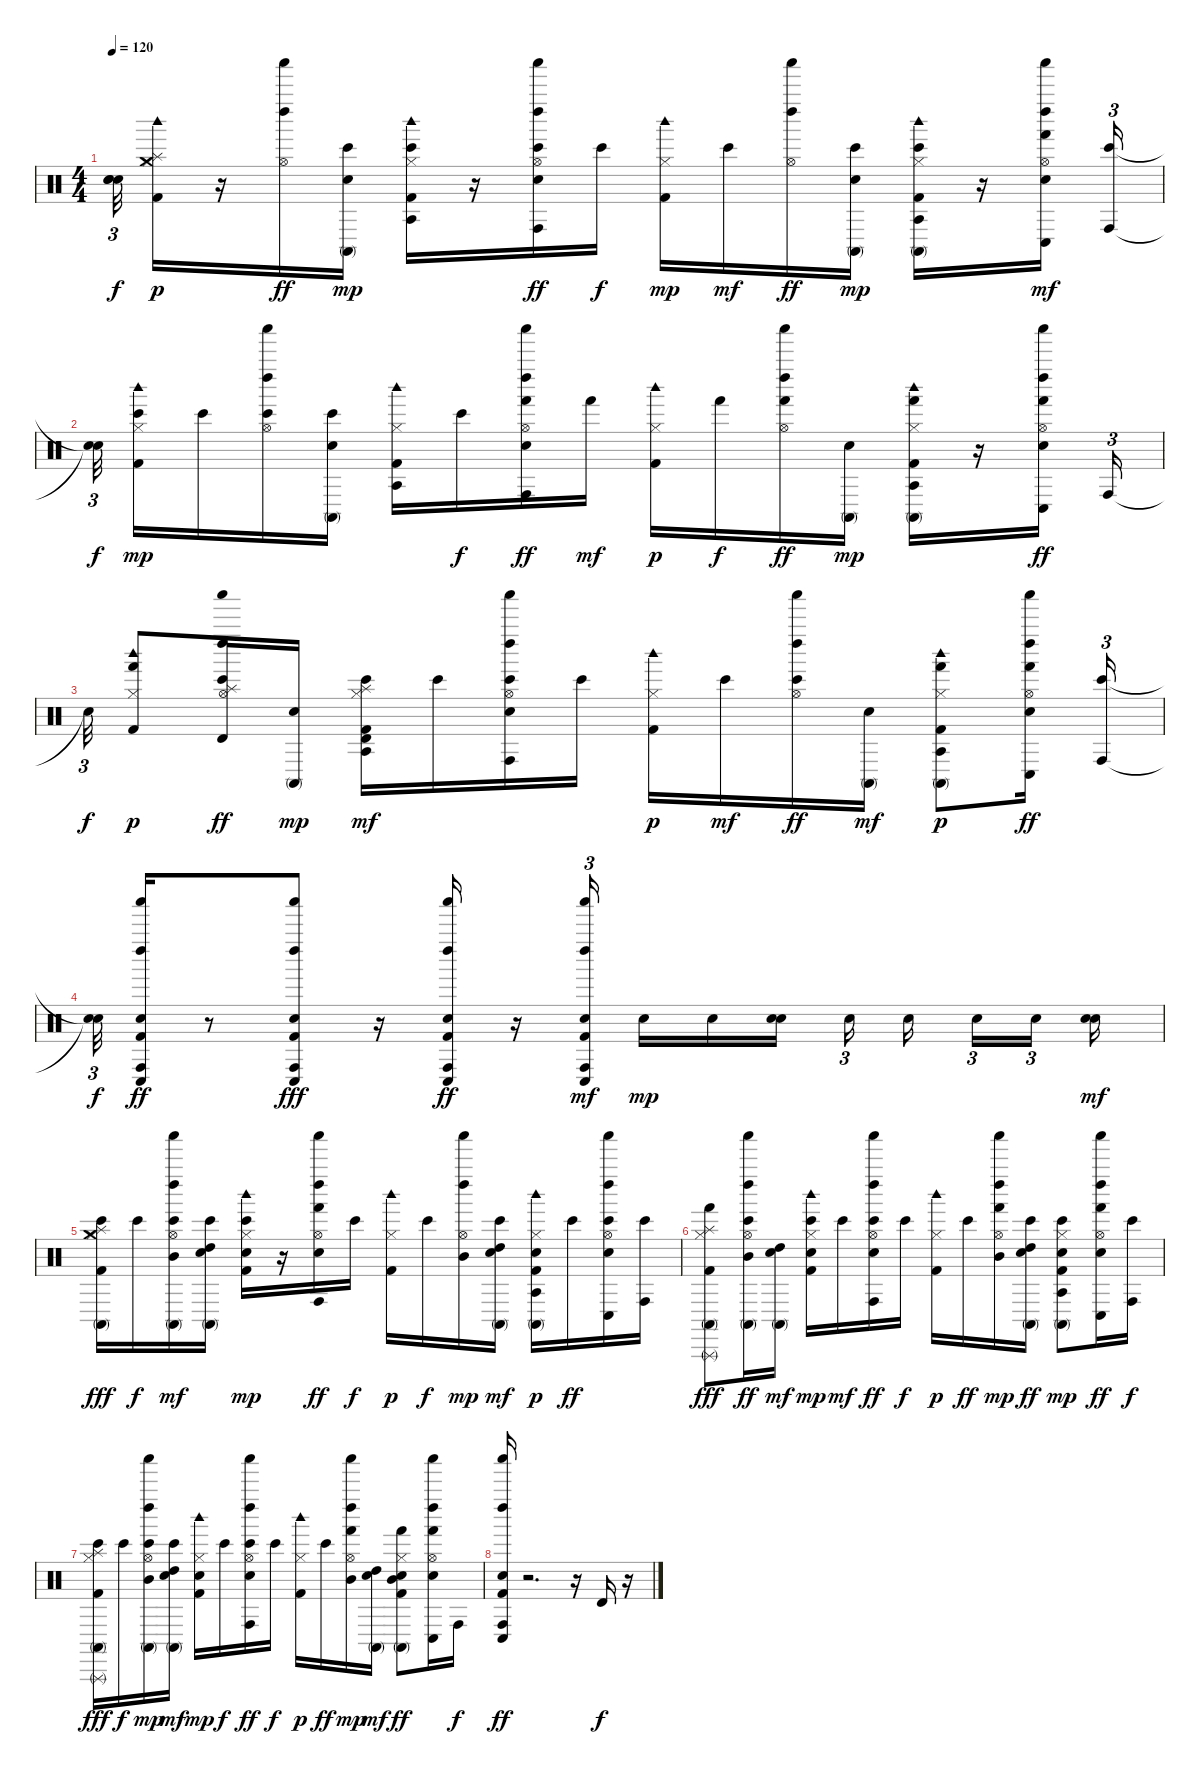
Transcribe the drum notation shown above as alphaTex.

\track "" {instrument percussion}
\staff {score}
\articulation defaults
\ts (4 4)
\tempo 120
\clef neutral
\ks c
("Snare (hit)"{t} "Snare (hit)"{t} "Snare (hit)"{t}).32{tu (3 2) dy f} ("Kick (hit) 2" "Hi-Hat (closed)" "Crash medium (hit)" "Splash (hit)" "Woodblock high (hit)").16{dy p} r.16 ("Shaker (hit)" "Left Maraca (hit)" "Hi-Hat (open)").16{dy ff} ("Electric Snare (hit)" "Conga high (mute)" "Bongo High (hit)").16{dy mp} ("Kick (hit) 2" "Hi-Hat (closed)" "Bongo High (hit)" "Agogo tow (hit)" "Woodblock high (hit)").16 r.16 ("Shaker (hit)" "Left Maraca (hit)" "Electric Snare (hit)" "Conga high (hit)" "Hi-Hat (open)" "Bongo High (hit)").16{dy ff} "Bongo High (hit)".16{dy f} ("Kick (hit) 2" "Hi-Hat (closed)" "Woodblock high (hit)").16{dy mp} "Bongo High (hit)".16{dy mf} ("Shaker (hit)" "Left Maraca (hit)" "Hi-Hat (open)").16{dy ff} ("Electric Snare (hit)" "Conga high (mute)" "Bongo High (hit)").16{dy mp} ("Kick (hit) 2" "Conga high (mute)" "Hi-Hat (closed)" "Bongo High (hit)" "Agogo tow (hit)" "Woodblock high (hit)").16 r.16 ("Shaker (hit)" "Left Maraca (hit)" "Electric Snare (hit)" "Conga low (hit)" "Hi-Hat (open)" "Hand (hit)").16{dy mf} ("Conga high (hit)" "Bongo High (hit)").16{tu (3 2)} |
("Snare (hit)"{t} "Snare (hit)"{t}).32{tu (3 2) dy f beam splitsecondary} ("Kick (hit) 2" "Hi-Hat (closed)" "Bongo High (hit)" "Woodblock high (hit)").16{dy mp} "Bongo High (hit)".16 ("Shaker (hit)" "Left Maraca (hit)" "Hi-Hat (open)" "Bongo High (hit)").16 ("Electric Snare (hit)" "Conga high (mute)" "Bongo High (hit)").16 ("Kick (hit) 2" "Hi-Hat (closed)" "Agogo tow (hit)" "Woodblock high (hit)").16 "Bongo High (hit)".16{dy f} ("Shaker (hit)" "Left Maraca (hit)" "Electric Snare (hit)" "Conga high (hit)" "Hi-Hat (open)" "Hand (hit)").16{dy ff} "Hand (hit)".16{dy mf} ("Kick (hit) 2" "Hi-Hat (closed)" "Woodblock high (hit)").16{dy p} "Hand (hit)".16{dy f} ("Shaker (hit)" "Left Maraca (hit)" "Hi-Hat (open)" "Hand (hit)").16{dy ff} ("Electric Snare (hit)" "Conga high (mute)").16{dy mp} ("Kick (hit) 2" "Conga high (mute)" "Hi-Hat (closed)" "Hand (hit)" "Agogo tow (hit)" "Woodblock high (hit)").16 r.16 ("Shaker (hit)" "Left Maraca (hit)" "Electric Snare (hit)" "Conga low (hit)" "Hi-Hat (open)" "Hand (hit)").16{dy ff} "Conga high (hit)".16{tu (3 2)} |
"Snare (hit)"{t}.32{tu (3 2) dy f} ("Kick (hit) 2" "Hi-Hat (closed)" "Hand (hit)" "Woodblock high (hit)").8{dy p} ("Shaker (hit)" "Left Maraca (hit)" "Hi-Hat (open)" "Timbale high (hit)" "Splash (hit)" "Bongo High (hit)").16{dy ff} ("Electric Snare (hit)" "Conga high (mute)").16{dy mp} ("Kick (hit) 2" "Hi-Hat (closed)" "Splash (hit)" "Timbale high (hit)" "Bongo High (hit)" "Agogo tow (hit)").16{dy mf} "Bongo High (hit)".16 ("Shaker (hit)" "Left Maraca (hit)" "Electric Snare (hit)" "Conga high (hit)" "Hi-Hat (open)" "Bongo High (hit)").16 "Bongo High (hit)".16 ("Kick (hit) 2" "Hi-Hat (closed)" "Woodblock high (hit)").16{dy p} "Bongo High (hit)".16{dy mf} ("Shaker (hit)" "Left Maraca (hit)" "Hi-Hat (open)" "Bongo High (hit)").16{dy ff} ("Electric Snare (hit)" "Conga high (mute)").16{dy mf} ("Kick (hit) 2" "Conga high (mute)" "Hi-Hat (closed)" "Hand (hit)" "Agogo tow (hit)" "Woodblock high (hit)").8{dy p} ("Shaker (hit)" "Left Maraca (hit)" "Electric Snare (hit)" "Conga low (hit)" "Hi-Hat (open)" "Hand (hit)").16{dy ff} ("Conga high (hit)" "Bongo High (hit)").16{tu (3 2)} |
("Snare (hit)"{t} "Snare (hit)"{t}).32{tu (3 2) dy f} ("Kick (hit) 2" "Shaker (hit)" "Left Maraca (hit)" "Electric Snare (hit)" "Conga low (hit)" "Conga high (hit)").16{dy ff} r.8 ("Kick (hit) 2" "Shaker (hit)" "Left Maraca (hit)" "Electric Snare (hit)" "Conga low (hit)" "Conga high (hit)").8{dy fff} r.16 ("Kick (hit) 2" "Shaker (hit)" "Left Maraca (hit)" "Electric Snare (hit)" "Conga low (hit)" "Conga high (hit)").16{dy ff} r.16 ("Kick (hit) 2" "Shaker (hit)" "Left Maraca (hit)" "Electric Snare (hit)" "Conga high (hit)" "Conga low (hit)").16{tu (3 2) dy mf beam splitsecondary} "Snare (hit) 2".16{dy mp} "Snare (hit) 2".16 ("Snare (hit) 2" "Snare (hit) 2").16 "Snare (hit) 2".16{tu (3 2) beam splitsecondary} "Snare (hit) 2".16{beam splitsecondary} "Snare (hit) 2".16{tu (3 2)} "Snare (hit) 2".16{tu (3 2) beam splitsecondary} ("Snare (hit) 2" "Snare (hit) 2").16{dy mf} |
("Kick (hit) 2" "Conga high (mute)" "Hi-Hat (closed)" "Crash medium (hit)" "Bongo High (hit)" "Splash (hit)").16{dy fff} "Bongo High (hit)".16{dy f} ("Shaker (hit)" "Left Maraca (hit)" "Conga high (mute)" "Hi-Hat (open)" "Mid Tom (hit)" "Bongo High (hit)").16{dy mf} ("Electric Snare (hit)" "Conga high (mute)" "High Tom (hit)" "Bongo High (hit)").16 ("Kick (hit) 2" "Hi-Hat (closed)" "Hand Clap (hit)" "Bongo High (hit)" "Woodblock high (hit)").16{dy mp} r.16 ("Shaker (hit)" "Left Maraca (hit)" "Electric Snare (hit)" "Conga high (hit)" "Hi-Hat (open)" "Hand (hit)").16{dy ff} "Bongo High (hit)".16{dy f} ("Kick (hit) 2" "Hi-Hat (closed)" "Woodblock high (hit)").16{dy p} "Bongo High (hit)".16{dy f} ("Shaker (hit)" "Left Maraca (hit)" "Hi-Hat (open)" "Mid Tom (hit)").16{dy mp} ("Electric Snare (hit)" "Conga high (mute)" "High Tom (hit)" "Bongo High (hit)").16{dy mf} ("Kick (hit) 2" "Conga high (mute)" "Hi-Hat (closed)" "Hand Clap (hit)" "Agogo tow (hit)" "Woodblock high (hit)").16{dy p} "Bongo High (hit)".16{dy ff} ("Shaker (hit)" "Left Maraca (hit)" "Electric Snare (hit)" "Conga low (hit)" "Hi-Hat (open)" "Bongo High (hit)").16 ("Conga high (hit)" "Bongo High (hit)").16 |
("Kick (hit) 2" "Conga high (mute)" "Hi-Hat (closed)" "Hand (hit)" "Splash (hit)" "Triangle (rnute)").8{dy fff} ("Shaker (hit)" "Left Maraca (hit)" "Conga high (mute)" "Hi-Hat (open)" "Mid Tom (hit)" "Bongo High (hit)").16{dy ff} ("Electric Snare (hit)" "Conga high (mute)" "High Tom (hit)").16{dy mf} ("Kick (hit) 2" "Hi-Hat (closed)" "Hand Clap (hit)" "Bongo High (hit)" "Woodblock high (hit)").16{dy mp} "Bongo High (hit)".16{dy mf} ("Shaker (hit)" "Left Maraca (hit)" "Electric Snare (hit)" "Conga high (hit)" "Hi-Hat (open)" "Bongo High (hit)").16{dy ff} "Bongo High (hit)".16{dy f} ("Kick (hit) 2" "Hi-Hat (closed)" "Woodblock high (hit)").16{dy p} "Bongo High (hit)".16{dy ff} ("Shaker (hit)" "Left Maraca (hit)" "Hi-Hat (open)" "Mid Tom (hit)" "Hand (hit)").16{dy mp} ("Electric Snare (hit)" "Conga high (mute)" "High Tom (hit)" "Bongo High (hit)").16{dy ff} ("Kick (hit) 2" "Conga high (mute)" "Hi-Hat (closed)" "Hand Clap (hit)" "Bongo High (hit)" "Agogo tow (hit)").8{dy mp} ("Shaker (hit)" "Left Maraca (hit)" "Electric Snare (hit)" "Conga low (hit)" "Hi-Hat (open)" "Hand (hit)").16{dy ff} ("Conga high (hit)" "Bongo High (hit)").16{dy f} |
("Kick (hit) 2" "Conga high (mute)" "Hi-Hat (closed)" "Bongo High (hit)" "Splash (hit)" "Triangle (rnute)").16{dy fff} "Bongo High (hit)".16{dy f} ("Shaker (hit)" "Left Maraca (hit)" "Conga high (mute)" "Hi-Hat (open)" "Mid Tom (hit)" "Bongo High (hit)").16{dy mp} ("Electric Snare (hit)" "Conga high (mute)" "High Tom (hit)" "Bongo High (hit)").16{dy mf} ("Kick (hit) 2" "Hi-Hat (closed)" "Hand Clap (hit)" "Woodblock high (hit)").16{dy mp} "Bongo High (hit)".16{dy f} ("Shaker (hit)" "Left Maraca (hit)" "Electric Snare (hit)" "Conga high (hit)" "Hi-Hat (open)" "Bongo High (hit)").16{dy ff} "Bongo High (hit)".16{dy f} ("Kick (hit) 2" "Hi-Hat (closed)" "Woodblock high (hit)").16{dy p} "Bongo High (hit)".16{dy ff} ("Shaker (hit)" "Left Maraca (hit)" "Hi-Hat (open)" "Mid Tom (hit)" "Hand (hit)").16{dy mp} ("Electric Snare (hit)" "Conga high (mute)" "High Tom (hit)").16{dy mf} ("Kick (hit) 2" "Conga high (mute)" "Hi-Hat (closed)" "Mid Tom (hit)" "Hand Clap (hit)" "Hand (hit)").8{dy ff} ("Shaker (hit)" "Left Maraca (hit)" "Electric Snare (hit)" "Conga low (hit)" "Hi-Hat (open)" "Hand (hit)").16 "Conga high (hit)".16{dy f} |
("Kick (hit) 2" "Shaker (hit)" "Left Maraca (hit)" "Electric Snare (hit)" "Conga low (hit)" "Conga high (hit)").16{dy ff} r.2{d} r.16 "Timbale high (hit)".16{dy f} r.16
